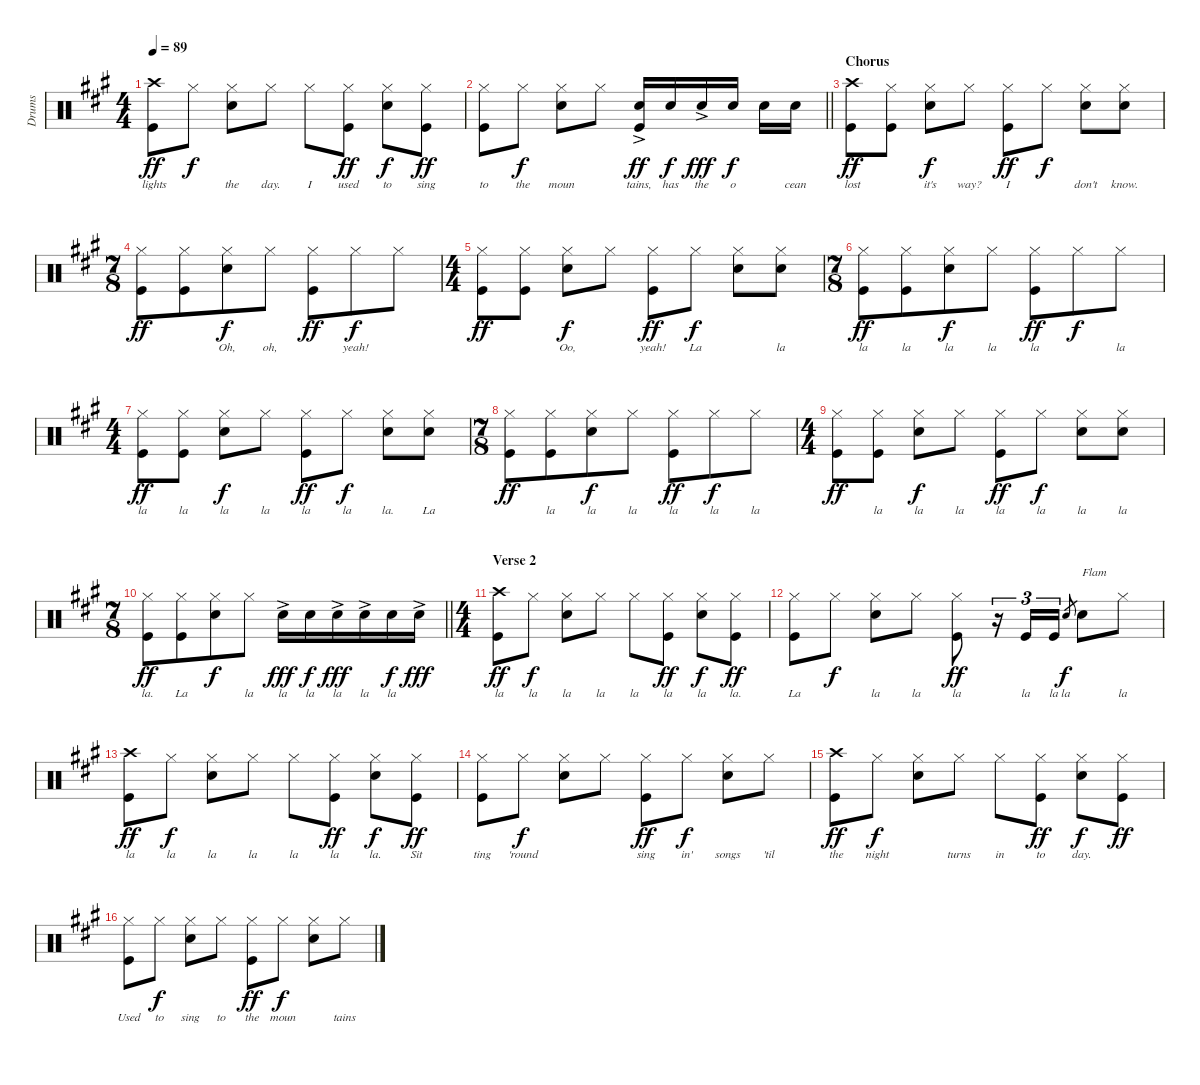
\track ("Drums" "Drums") {instrument percussion}
\staff {score}
\articulation defaults
\ts (4 4)
\tempo 89
\clef neutral
\ks a
("Crash high (hit)" "Kick (hit)").8{lyrics (0 "lights") lyrics (1 "") lyrics (2 "") lyrics (3 "") lyrics (4 "") dy ff} "Hi-Hat (closed)".8{lyrics (0 "") lyrics (1 "") lyrics (2 "") lyrics (3 "") lyrics (4 "") dy f} ("Hi-Hat (closed)" "Snare (hit) 2").8{lyrics (0 "the") lyrics (1 "") lyrics (2 "") lyrics (3 "") lyrics (4 "")} "Hi-Hat (closed)".8{lyrics (0 "day.") lyrics (1 "") lyrics (2 "") lyrics (3 "") lyrics (4 "")} "Hi-Hat (closed)".8{lyrics (0 "I") lyrics (1 "") lyrics (2 "") lyrics (3 "") lyrics (4 "")} ("Hi-Hat (closed)" "Kick (hit)").8{lyrics (0 "used") lyrics (1 "") lyrics (2 "") lyrics (3 "") lyrics (4 "") dy ff} ("Hi-Hat (closed)" "Snare (hit) 2").8{lyrics (0 "to") lyrics (1 "") lyrics (2 "") lyrics (3 "") lyrics (4 "") dy f} ("Hi-Hat (closed)" "Kick (hit)").8{lyrics (0 "sing") lyrics (1 "") lyrics (2 "") lyrics (3 "") lyrics (4 "") dy ff} |
\barLineRight lightlight
("Hi-Hat (closed)" "Kick (hit)").8{lyrics (0 "to") lyrics (1 "") lyrics (2 "") lyrics (3 "") lyrics (4 "")} "Hi-Hat (closed)".8{lyrics (0 "the") lyrics (1 "") lyrics (2 "") lyrics (3 "") lyrics (4 "") dy f} ("Hi-Hat (closed)" "Snare (hit) 2").8{lyrics (0 "moun") lyrics (1 "") lyrics (2 "") lyrics (3 "") lyrics (4 "")} "Hi-Hat (closed)".8{lyrics (0 "") lyrics (1 "") lyrics (2 "") lyrics (3 "") lyrics (4 "")} ("Snare (hit) 2"{ac} "Kick (hit)").16{lyrics (0 "tains,") lyrics (1 "") lyrics (2 "") lyrics (3 "") lyrics (4 "") dy ff} "Snare (hit) 2".16{lyrics (0 "has") lyrics (1 "") lyrics (2 "") lyrics (3 "") lyrics (4 "") dy f} "Snare (hit) 2"{ac}.16{lyrics (0 "the") lyrics (1 "") lyrics (2 "") lyrics (3 "") lyrics (4 "") dy fff} "Snare (hit) 2".16{lyrics (0 "o") lyrics (1 "") lyrics (2 "") lyrics (3 "") lyrics (4 "") dy f} "Snare (hit) 2".16{lyrics (0 "") lyrics (1 "") lyrics (2 "") lyrics (3 "") lyrics (4 "")} "Snare (hit) 2".16{lyrics (0 "cean") lyrics (1 "") lyrics (2 "") lyrics (3 "") lyrics (4 "")} |
\section ("" "Chorus")
("Crash high (hit)" "Kick (hit)").8{lyrics (0 "lost") lyrics (1 "") lyrics (2 "") lyrics (3 "") lyrics (4 "") dy ff} ("Hi-Hat (closed)" "Kick (hit)").8{lyrics (0 "") lyrics (1 "") lyrics (2 "") lyrics (3 "") lyrics (4 "")} ("Hi-Hat (closed)" "Snare (hit) 2").8{lyrics (0 "it's") lyrics (1 "") lyrics (2 "") lyrics (3 "") lyrics (4 "") dy f} "Hi-Hat (closed)".8{lyrics (0 "way?") lyrics (1 "") lyrics (2 "") lyrics (3 "") lyrics (4 "")} ("Hi-Hat (closed)" "Kick (hit)").8{lyrics (0 "I") lyrics (1 "") lyrics (2 "") lyrics (3 "") lyrics (4 "") dy ff} "Hi-Hat (closed)".8{lyrics (0 "") lyrics (1 "") lyrics (2 "") lyrics (3 "") lyrics (4 "") dy f} ("Hi-Hat (closed)" "Snare (hit) 2").8{lyrics (0 "don't") lyrics (1 "") lyrics (2 "") lyrics (3 "") lyrics (4 "")} ("Hi-Hat (closed)" "Snare (hit) 2").8{lyrics (0 "know.") lyrics (1 "") lyrics (2 "") lyrics (3 "") lyrics (4 "")} |
\ts (7 8)
("Hi-Hat (closed)" "Kick (hit)").8{lyrics (0 "") lyrics (1 "") lyrics (2 "") lyrics (3 "") lyrics (4 "") dy ff} ("Hi-Hat (closed)" "Kick (hit)").8{lyrics (0 "") lyrics (1 "") lyrics (2 "") lyrics (3 "") lyrics (4 "")} ("Hi-Hat (closed)" "Snare (hit) 2").8{lyrics (0 "Oh,") lyrics (1 "") lyrics (2 "") lyrics (3 "") lyrics (4 "") dy f} "Hi-Hat (closed)".8{lyrics (0 "oh,") lyrics (1 "") lyrics (2 "") lyrics (3 "") lyrics (4 "")} ("Hi-Hat (closed)" "Kick (hit)").8{lyrics (0 "") lyrics (1 "") lyrics (2 "") lyrics (3 "") lyrics (4 "") dy ff} "Hi-Hat (closed)".8{lyrics (0 "yeah!") lyrics (1 "") lyrics (2 "") lyrics (3 "") lyrics (4 "") dy f} "Hi-Hat (closed)".8{lyrics (0 "") lyrics (1 "") lyrics (2 "") lyrics (3 "") lyrics (4 "")} |
\ts (4 4)
("Hi-Hat (closed)" "Kick (hit)").8{lyrics (0 "") lyrics (1 "") lyrics (2 "") lyrics (3 "") lyrics (4 "") dy ff} ("Hi-Hat (closed)" "Kick (hit)").8{lyrics (0 "") lyrics (1 "") lyrics (2 "") lyrics (3 "") lyrics (4 "")} ("Hi-Hat (closed)" "Snare (hit) 2").8{lyrics (0 "Oo,") lyrics (1 "") lyrics (2 "") lyrics (3 "") lyrics (4 "") dy f} "Hi-Hat (closed)".8{lyrics (0 "") lyrics (1 "") lyrics (2 "") lyrics (3 "") lyrics (4 "")} ("Hi-Hat (closed)" "Kick (hit)").8{lyrics (0 "yeah!") lyrics (1 "") lyrics (2 "") lyrics (3 "") lyrics (4 "") dy ff} "Hi-Hat (closed)".8{lyrics (0 "La") lyrics (1 "") lyrics (2 "") lyrics (3 "") lyrics (4 "") dy f} ("Hi-Hat (closed)" "Snare (hit) 2").8{lyrics (0 "") lyrics (1 "") lyrics (2 "") lyrics (3 "") lyrics (4 "")} ("Hi-Hat (closed)" "Snare (hit) 2").8{lyrics (0 "la") lyrics (1 "") lyrics (2 "") lyrics (3 "") lyrics (4 "")} |
\ts (7 8)
("Hi-Hat (closed)" "Kick (hit)").8{lyrics (0 "la") lyrics (1 "") lyrics (2 "") lyrics (3 "") lyrics (4 "") dy ff} ("Hi-Hat (closed)" "Kick (hit)").8{lyrics (0 "la") lyrics (1 "") lyrics (2 "") lyrics (3 "") lyrics (4 "")} ("Hi-Hat (closed)" "Snare (hit) 2").8{lyrics (0 "la") lyrics (1 "") lyrics (2 "") lyrics (3 "") lyrics (4 "") dy f} "Hi-Hat (closed)".8{lyrics (0 "la") lyrics (1 "") lyrics (2 "") lyrics (3 "") lyrics (4 "")} ("Hi-Hat (closed)" "Kick (hit)").8{lyrics (0 "la") lyrics (1 "") lyrics (2 "") lyrics (3 "") lyrics (4 "") dy ff} "Hi-Hat (closed)".8{lyrics (0 "") lyrics (1 "") lyrics (2 "") lyrics (3 "") lyrics (4 "") dy f} "Hi-Hat (closed)".8{lyrics (0 "la") lyrics (1 "") lyrics (2 "") lyrics (3 "") lyrics (4 "")} |
\ts (4 4)
("Hi-Hat (closed)" "Kick (hit)").8{lyrics (0 "la") lyrics (1 "") lyrics (2 "") lyrics (3 "") lyrics (4 "") dy ff} ("Hi-Hat (closed)" "Kick (hit)").8{lyrics (0 "la") lyrics (1 "") lyrics (2 "") lyrics (3 "") lyrics (4 "")} ("Hi-Hat (closed)" "Snare (hit) 2").8{lyrics (0 "la") lyrics (1 "") lyrics (2 "") lyrics (3 "") lyrics (4 "") dy f} "Hi-Hat (closed)".8{lyrics (0 "la") lyrics (1 "") lyrics (2 "") lyrics (3 "") lyrics (4 "")} ("Hi-Hat (closed)" "Kick (hit)").8{lyrics (0 "la") lyrics (1 "") lyrics (2 "") lyrics (3 "") lyrics (4 "") dy ff} "Hi-Hat (closed)".8{lyrics (0 "la") lyrics (1 "") lyrics (2 "") lyrics (3 "") lyrics (4 "") dy f} ("Hi-Hat (closed)" "Snare (hit) 2").8{lyrics (0 "la.") lyrics (1 "") lyrics (2 "") lyrics (3 "") lyrics (4 "")} ("Hi-Hat (closed)" "Snare (hit) 2").8{lyrics (0 "La") lyrics (1 "") lyrics (2 "") lyrics (3 "") lyrics (4 "")} |
\ts (7 8)
("Hi-Hat (closed)" "Kick (hit)").8{lyrics (0 "") lyrics (1 "") lyrics (2 "") lyrics (3 "") lyrics (4 "") dy ff} ("Hi-Hat (closed)" "Kick (hit)").8{lyrics (0 "la") lyrics (1 "") lyrics (2 "") lyrics (3 "") lyrics (4 "")} ("Hi-Hat (closed)" "Snare (hit) 2").8{lyrics (0 "la") lyrics (1 "") lyrics (2 "") lyrics (3 "") lyrics (4 "") dy f} "Hi-Hat (closed)".8{lyrics (0 "la") lyrics (1 "") lyrics (2 "") lyrics (3 "") lyrics (4 "")} ("Hi-Hat (closed)" "Kick (hit)").8{lyrics (0 "la") lyrics (1 "") lyrics (2 "") lyrics (3 "") lyrics (4 "") dy ff} "Hi-Hat (closed)".8{lyrics (0 "la") lyrics (1 "") lyrics (2 "") lyrics (3 "") lyrics (4 "") dy f} "Hi-Hat (closed)".8{lyrics (0 "la") lyrics (1 "") lyrics (2 "") lyrics (3 "") lyrics (4 "")} |
\ts (4 4)
("Hi-Hat (closed)" "Kick (hit)").8{lyrics (0 "") lyrics (1 "") lyrics (2 "") lyrics (3 "") lyrics (4 "") dy ff} ("Hi-Hat (closed)" "Kick (hit)").8{lyrics (0 "la") lyrics (1 "") lyrics (2 "") lyrics (3 "") lyrics (4 "")} ("Hi-Hat (closed)" "Snare (hit) 2").8{lyrics (0 "la") lyrics (1 "") lyrics (2 "") lyrics (3 "") lyrics (4 "") dy f} "Hi-Hat (closed)".8{lyrics (0 "la") lyrics (1 "") lyrics (2 "") lyrics (3 "") lyrics (4 "")} ("Hi-Hat (closed)" "Kick (hit)").8{lyrics (0 "la") lyrics (1 "") lyrics (2 "") lyrics (3 "") lyrics (4 "") dy ff} "Hi-Hat (closed)".8{lyrics (0 "la") lyrics (1 "") lyrics (2 "") lyrics (3 "") lyrics (4 "") dy f} ("Hi-Hat (closed)" "Snare (hit) 2").8{lyrics (0 "la") lyrics (1 "") lyrics (2 "") lyrics (3 "") lyrics (4 "")} ("Hi-Hat (closed)" "Snare (hit) 2").8{lyrics (0 "la") lyrics (1 "") lyrics (2 "") lyrics (3 "") lyrics (4 "")} |
\ts (7 8)
\barLineRight lightlight
("Hi-Hat (closed)" "Kick (hit)").8{lyrics (0 "la.") lyrics (1 "") lyrics (2 "") lyrics (3 "") lyrics (4 "") dy ff} ("Hi-Hat (closed)" "Kick (hit)").8{lyrics (0 "La") lyrics (1 "") lyrics (2 "") lyrics (3 "") lyrics (4 "")} ("Hi-Hat (closed)" "Snare (hit) 2").8{lyrics (0 "") lyrics (1 "") lyrics (2 "") lyrics (3 "") lyrics (4 "") dy f} "Hi-Hat (closed)".8{lyrics (0 "la") lyrics (1 "") lyrics (2 "") lyrics (3 "") lyrics (4 "")} "Snare (hit) 2"{ac}.16{lyrics (0 "la") lyrics (1 "") lyrics (2 "") lyrics (3 "") lyrics (4 "") dy fff} "Snare (hit) 2".16{lyrics (0 "la") lyrics (1 "") lyrics (2 "") lyrics (3 "") lyrics (4 "") dy f} "Snare (hit) 2"{ac}.16{lyrics (0 "la") lyrics (1 "") lyrics (2 "") lyrics (3 "") lyrics (4 "") dy fff} "Snare (hit) 2"{ac}.16{lyrics (0 "la") lyrics (1 "") lyrics (2 "") lyrics (3 "") lyrics (4 "")} "Snare (hit) 2".16{lyrics (0 "la") lyrics (1 "") lyrics (2 "") lyrics (3 "") lyrics (4 "") dy f} "Snare (hit) 2"{ac}.16{lyrics (0 "") lyrics (1 "") lyrics (2 "") lyrics (3 "") lyrics (4 "") dy fff} |
\ts (4 4)
\section ("" "Verse 2")
("Crash high (hit)" "Kick (hit)").8{lyrics (0 "la") lyrics (1 "") lyrics (2 "") lyrics (3 "") lyrics (4 "") dy ff} "Hi-Hat (closed)".8{lyrics (0 "la") lyrics (1 "") lyrics (2 "") lyrics (3 "") lyrics (4 "") dy f} ("Hi-Hat (closed)" "Snare (hit) 2").8{lyrics (0 "la") lyrics (1 "") lyrics (2 "") lyrics (3 "") lyrics (4 "")} "Hi-Hat (closed)".8{lyrics (0 "la") lyrics (1 "") lyrics (2 "") lyrics (3 "") lyrics (4 "")} "Hi-Hat (closed)".8{lyrics (0 "la") lyrics (1 "") lyrics (2 "") lyrics (3 "") lyrics (4 "")} ("Hi-Hat (closed)" "Kick (hit)").8{lyrics (0 "la") lyrics (1 "") lyrics (2 "") lyrics (3 "") lyrics (4 "") dy ff} ("Hi-Hat (closed)" "Snare (hit) 2").8{lyrics (0 "la") lyrics (1 "") lyrics (2 "") lyrics (3 "") lyrics (4 "") dy f} ("Hi-Hat (closed)" "Kick (hit)").8{lyrics (0 "la.") lyrics (1 "") lyrics (2 "") lyrics (3 "") lyrics (4 "") dy ff} |
("Hi-Hat (closed)" "Kick (hit)").8{lyrics (0 "La") lyrics (1 "") lyrics (2 "") lyrics (3 "") lyrics (4 "")} "Hi-Hat (closed)".8{lyrics (0 "") lyrics (1 "") lyrics (2 "") lyrics (3 "") lyrics (4 "") dy f} ("Hi-Hat (closed)" "Snare (hit) 2").8{lyrics (0 "la") lyrics (1 "") lyrics (2 "") lyrics (3 "") lyrics (4 "")} "Hi-Hat (closed)".8{lyrics (0 "la") lyrics (1 "") lyrics (2 "") lyrics (3 "") lyrics (4 "")} ("Hi-Hat (closed)" "Kick (hit)").8{lyrics (0 "la") lyrics (1 "") lyrics (2 "") lyrics (3 "") lyrics (4 "") dy ff} r.16{tu (3 2)} "Kick (hit)".16{tu (3 2) lyrics (0 "la") lyrics (1 "") lyrics (2 "") lyrics (3 "") lyrics (4 "")} "Kick (hit)".16{tu (3 2) lyrics (0 "la") lyrics (1 "") lyrics (2 "") lyrics (3 "") lyrics (4 "")} "Snare (hit) 2".8{lyrics (0 "la") lyrics (1 "") lyrics (2 "") lyrics (3 "") lyrics (4 "") gr dy f} "Snare (hit) 2".8{txt "Flam" lyrics (0 "") lyrics (1 "") lyrics (2 "") lyrics (3 "") lyrics (4 "")} "Hi-Hat (closed)".8{lyrics (0 "la") lyrics (1 "") lyrics (2 "") lyrics (3 "") lyrics (4 "")} |
("Crash high (hit)" "Kick (hit)").8{lyrics (0 "la") lyrics (1 "") lyrics (2 "") lyrics (3 "") lyrics (4 "") dy ff} "Hi-Hat (closed)".8{lyrics (0 "la") lyrics (1 "") lyrics (2 "") lyrics (3 "") lyrics (4 "") dy f} ("Hi-Hat (closed)" "Snare (hit) 2").8{lyrics (0 "la") lyrics (1 "") lyrics (2 "") lyrics (3 "") lyrics (4 "")} "Hi-Hat (closed)".8{lyrics (0 "la") lyrics (1 "") lyrics (2 "") lyrics (3 "") lyrics (4 "")} "Hi-Hat (closed)".8{lyrics (0 "la") lyrics (1 "") lyrics (2 "") lyrics (3 "") lyrics (4 "")} ("Hi-Hat (closed)" "Kick (hit)").8{lyrics (0 "la") lyrics (1 "") lyrics (2 "") lyrics (3 "") lyrics (4 "") dy ff} ("Hi-Hat (closed)" "Snare (hit) 2").8{lyrics (0 "la.") lyrics (1 "") lyrics (2 "") lyrics (3 "") lyrics (4 "") dy f} ("Hi-Hat (closed)" "Kick (hit)").8{lyrics (0 "Sit") lyrics (1 "") lyrics (2 "") lyrics (3 "") lyrics (4 "") dy ff} |
("Hi-Hat (closed)" "Kick (hit)").8{lyrics (0 "ting") lyrics (1 "") lyrics (2 "") lyrics (3 "") lyrics (4 "")} "Hi-Hat (closed)".8{lyrics (0 "'round") lyrics (1 "") lyrics (2 "") lyrics (3 "") lyrics (4 "") dy f} ("Hi-Hat (closed)" "Snare (hit) 2").8{lyrics (0 "") lyrics (1 "") lyrics (2 "") lyrics (3 "") lyrics (4 "")} "Hi-Hat (closed)".8{lyrics (0 "") lyrics (1 "") lyrics (2 "") lyrics (3 "") lyrics (4 "")} ("Hi-Hat (closed)" "Kick (hit)").8{lyrics (0 "sing") lyrics (1 "") lyrics (2 "") lyrics (3 "") lyrics (4 "") dy ff} "Hi-Hat (closed)".8{lyrics (0 "in'") lyrics (1 "") lyrics (2 "") lyrics (3 "") lyrics (4 "") dy f} ("Hi-Hat (closed)" "Snare (hit) 2").8{lyrics (0 "songs") lyrics (1 "") lyrics (2 "") lyrics (3 "") lyrics (4 "")} "Hi-Hat (closed)".8{lyrics (0 "'til") lyrics (1 "") lyrics (2 "") lyrics (3 "") lyrics (4 "")} |
("Crash high (hit)" "Kick (hit)").8{lyrics (0 "the") lyrics (1 "") lyrics (2 "") lyrics (3 "") lyrics (4 "") dy ff} "Hi-Hat (closed)".8{lyrics (0 "night") lyrics (1 "") lyrics (2 "") lyrics (3 "") lyrics (4 "") dy f} ("Hi-Hat (closed)" "Snare (hit) 2").8{lyrics (0 "") lyrics (1 "") lyrics (2 "") lyrics (3 "") lyrics (4 "")} "Hi-Hat (closed)".8{lyrics (0 "turns") lyrics (1 "") lyrics (2 "") lyrics (3 "") lyrics (4 "")} "Hi-Hat (closed)".8{lyrics (0 "in") lyrics (1 "") lyrics (2 "") lyrics (3 "") lyrics (4 "")} ("Hi-Hat (closed)" "Kick (hit)").8{lyrics (0 "to") lyrics (1 "") lyrics (2 "") lyrics (3 "") lyrics (4 "") dy ff} ("Hi-Hat (closed)" "Snare (hit) 2").8{lyrics (0 "day.") lyrics (1 "") lyrics (2 "") lyrics (3 "") lyrics (4 "") dy f} ("Hi-Hat (closed)" "Kick (hit)").8{lyrics (0 "") lyrics (1 "") lyrics (2 "") lyrics (3 "") lyrics (4 "") dy ff} |
("Hi-Hat (closed)" "Kick (hit)").8{lyrics (0 "Used") lyrics (1 "") lyrics (2 "") lyrics (3 "") lyrics (4 "")} "Hi-Hat (closed)".8{lyrics (0 "to") lyrics (1 "") lyrics (2 "") lyrics (3 "") lyrics (4 "") dy f} ("Hi-Hat (closed)" "Snare (hit) 2").8{lyrics (0 "sing") lyrics (1 "") lyrics (2 "") lyrics (3 "") lyrics (4 "")} "Hi-Hat (closed)".8{lyrics (0 "to") lyrics (1 "") lyrics (2 "") lyrics (3 "") lyrics (4 "")} ("Hi-Hat (closed)" "Kick (hit)").8{lyrics (0 "the") lyrics (1 "") lyrics (2 "") lyrics (3 "") lyrics (4 "") dy ff} "Hi-Hat (closed)".8{lyrics (0 "moun") lyrics (1 "") lyrics (2 "") lyrics (3 "") lyrics (4 "") dy f} ("Hi-Hat (closed)" "Snare (hit) 2").8{lyrics (0 "") lyrics (1 "") lyrics (2 "") lyrics (3 "") lyrics (4 "")} "Hi-Hat (closed)".8{lyrics (0 "tains") lyrics (1 "") lyrics (2 "") lyrics (3 "") lyrics (4 "")}
